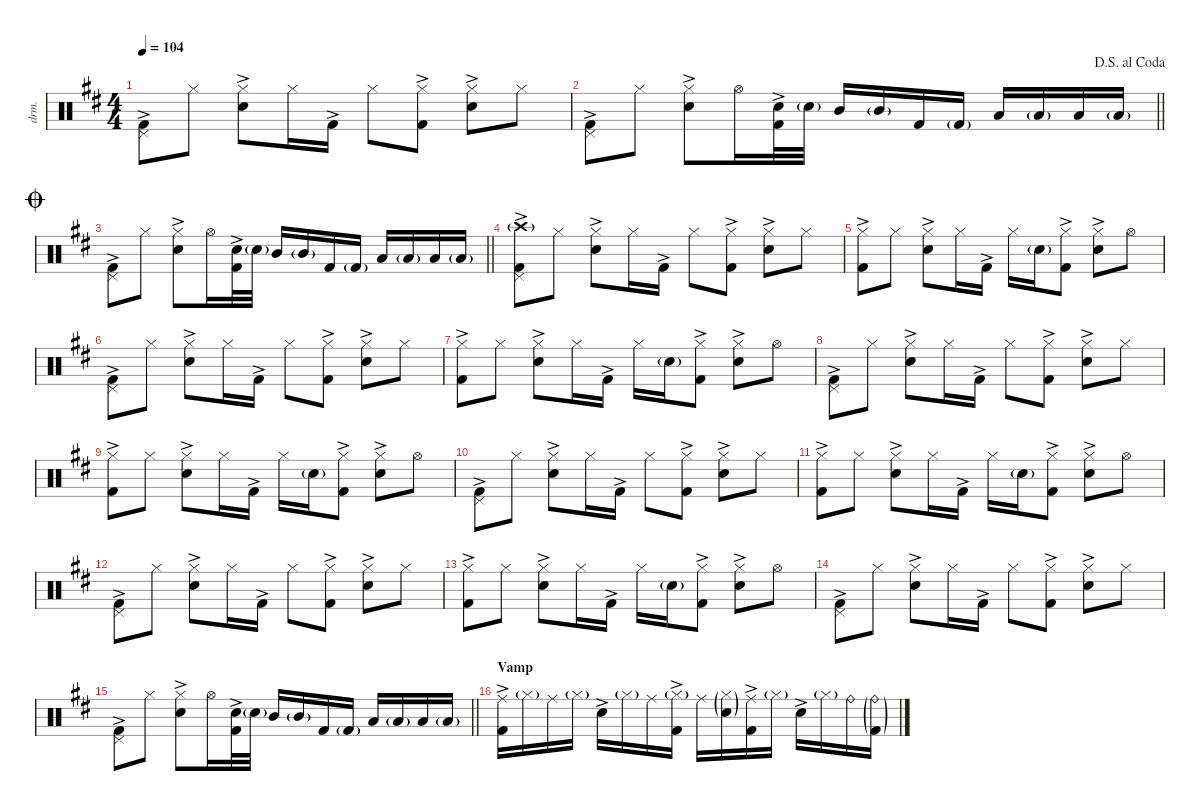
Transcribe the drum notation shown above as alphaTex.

\defaultSystemsLayout 4
\hideDynamics
\bracketExtendMode nobrackets
\otherSystemsTrackNameOrientation horizontal
\track ("Drums" "drm.") {instrument percussion}
\staff {score}
\articulation defaults
\ts (4 4)
\tempo 104
\clef neutral
\ks d
("Pedal Hi-Hat (hit)"{acc forcenatural} "Kick (hit) 2"{ac acc forcenatural}).8{dy f} "Hi-Hat (closed)"{acc forcenatural}.8 ("Hi-Hat (closed)"{acc forcenatural} "Snare (hit) 2"{ac acc forcenatural}).8 "Hi-Hat (closed)"{acc forcenatural}.16 "Kick (hit) 2"{ac acc forcenatural}.16 "Hi-Hat (closed)"{acc forcenatural}.8 ("Hi-Hat (closed)"{acc forcenatural} "Kick (hit) 2"{ac acc forcenatural}).8 ("Hi-Hat (closed)"{acc forcenatural} "Snare (hit) 2"{ac acc forcenatural}).8 "Hi-Hat (closed)"{acc forcenatural}.8 |
\jump dalsegnoalcoda
\barLineRight lightlight
("Pedal Hi-Hat (hit)"{acc forcenatural} "Kick (hit) 2"{ac acc forcenatural}).8 "Hi-Hat (closed)"{acc forcenatural}.8 ("Hi-Hat (closed)"{acc forcenatural} "Snare (hit) 2"{ac acc forcenatural}).8 "Hi-Hat (open)"{acc forcenatural}.16 ("Snare (hit) 2"{acc forcenatural} "Kick (hit) 2"{ac acc forcenatural}).32 "Snare (hit) 2"{g acc forcenatural}.32{dy mf} "Mid Tom (hit)"{acc forcenatural}.16{dy f} "Mid Tom (hit)"{g acc forcenatural}.16{dy mf} "Kick (hit) 2"{acc forcenatural}.16{dy f} "Kick (hit) 2"{g acc forcenatural}.16{dy mf} "Low Tom (hit)"{acc forcenatural}.16{dy f} "Low Tom (hit)"{g acc forcenatural}.16{dy mf} "Low Floor Tom (hit)"{acc forcenatural}.16{dy f} "Low Floor Tom (hit)"{g acc forcenatural}.16{dy mf} |
\jump coda
\barLineRight lightlight
("Pedal Hi-Hat (hit)"{acc forcenatural} "Kick (hit) 2"{ac acc forcenatural}).8{dy f} "Hi-Hat (closed)"{acc forcenatural}.8 ("Hi-Hat (closed)"{acc forcenatural} "Snare (hit) 2"{ac acc forcenatural}).8 "Hi-Hat (open)"{acc forcenatural}.16 ("Snare (hit) 2"{acc forcenatural} "Kick (hit) 2"{ac acc forcenatural}).32 "Snare (hit) 2"{g acc forcenatural}.32{dy mf} "Mid Tom (hit)"{acc forcenatural}.16{dy f} "Mid Tom (hit)"{g acc forcenatural}.16{dy mf} "Kick (hit) 2"{acc forcenatural}.16{dy f} "Kick (hit) 2"{g acc forcenatural}.16{dy mf} "Low Tom (hit)"{acc forcenatural}.16{dy f} "Low Tom (hit)"{g acc forcenatural}.16{dy mf} "Low Floor Tom (hit)"{acc forcenatural}.16{dy f} "Low Floor Tom (hit)"{g acc forcenatural}.16{dy mf} |
("Pedal Hi-Hat (hit)"{acc forcenatural} "Crash high (hit)"{g acc forcenatural} "Kick (hit) 2"{ac acc forcenatural}).8{dy f} "Hi-Hat (closed)"{acc forcenatural}.8 ("Hi-Hat (closed)"{acc forcenatural} "Snare (hit) 2"{ac acc forcenatural}).8 "Hi-Hat (closed)"{acc forcenatural}.16 "Kick (hit) 2"{ac acc forcenatural}.16 "Hi-Hat (closed)"{acc forcenatural}.8 ("Hi-Hat (closed)"{acc forcenatural} "Kick (hit) 2"{ac acc forcenatural}).8 ("Hi-Hat (closed)"{acc forcenatural} "Snare (hit) 2"{ac acc forcenatural}).8 "Hi-Hat (closed)"{acc forcenatural}.8 |
("Hi-Hat (closed)"{acc forcenatural} "Kick (hit) 2"{ac acc forcenatural}).8 "Hi-Hat (closed)"{acc forcenatural}.8 ("Hi-Hat (closed)"{acc forcenatural} "Snare (hit) 2"{ac acc forcenatural}).8 "Hi-Hat (closed)"{acc forcenatural}.16 "Kick (hit) 2"{ac acc forcenatural}.16 "Hi-Hat (closed)"{acc forcenatural}.16 "Snare (hit) 2"{g acc forcenatural}.16{dy p} ("Hi-Hat (closed)"{acc forcenatural} "Kick (hit) 2"{ac acc forcenatural}).8{dy f} ("Hi-Hat (closed)"{acc forcenatural} "Snare (hit) 2"{ac acc forcenatural}).8 "Hi-Hat (open)"{acc forcenatural}.8 |
("Pedal Hi-Hat (hit)"{acc forcenatural} "Kick (hit) 2"{ac acc forcenatural}).8 "Hi-Hat (closed)"{acc forcenatural}.8 ("Hi-Hat (closed)"{acc forcenatural} "Snare (hit) 2"{ac acc forcenatural}).8 "Hi-Hat (closed)"{acc forcenatural}.16 "Kick (hit) 2"{ac acc forcenatural}.16 "Hi-Hat (closed)"{acc forcenatural}.8 ("Hi-Hat (closed)"{acc forcenatural} "Kick (hit) 2"{ac acc forcenatural}).8 ("Hi-Hat (closed)"{acc forcenatural} "Snare (hit) 2"{ac acc forcenatural}).8 "Hi-Hat (closed)"{acc forcenatural}.8 |
("Hi-Hat (closed)"{acc forcenatural} "Kick (hit) 2"{ac acc forcenatural}).8 "Hi-Hat (closed)"{acc forcenatural}.8 ("Hi-Hat (closed)"{acc forcenatural} "Snare (hit) 2"{ac acc forcenatural}).8 "Hi-Hat (closed)"{acc forcenatural}.16 "Kick (hit) 2"{ac acc forcenatural}.16 "Hi-Hat (closed)"{acc forcenatural}.16 "Snare (hit) 2"{g acc forcenatural}.16{dy p} ("Hi-Hat (closed)"{acc forcenatural} "Kick (hit) 2"{ac acc forcenatural}).8{dy f} ("Hi-Hat (closed)"{acc forcenatural} "Snare (hit) 2"{ac acc forcenatural}).8 "Hi-Hat (open)"{acc forcenatural}.8 |
("Pedal Hi-Hat (hit)"{acc forcenatural} "Kick (hit) 2"{ac acc forcenatural}).8 "Hi-Hat (closed)"{acc forcenatural}.8 ("Hi-Hat (closed)"{acc forcenatural} "Snare (hit) 2"{ac acc forcenatural}).8 "Hi-Hat (closed)"{acc forcenatural}.16 "Kick (hit) 2"{ac acc forcenatural}.16 "Hi-Hat (closed)"{acc forcenatural}.8 ("Hi-Hat (closed)"{acc forcenatural} "Kick (hit) 2"{ac acc forcenatural}).8 ("Hi-Hat (closed)"{acc forcenatural} "Snare (hit) 2"{ac acc forcenatural}).8 "Hi-Hat (closed)"{acc forcenatural}.8 |
("Hi-Hat (closed)"{acc forcenatural} "Kick (hit) 2"{ac acc forcenatural}).8 "Hi-Hat (closed)"{acc forcenatural}.8 ("Hi-Hat (closed)"{acc forcenatural} "Snare (hit) 2"{ac acc forcenatural}).8 "Hi-Hat (closed)"{acc forcenatural}.16 "Kick (hit) 2"{ac acc forcenatural}.16 "Hi-Hat (closed)"{acc forcenatural}.16 "Snare (hit) 2"{g acc forcenatural}.16{dy p} ("Hi-Hat (closed)"{acc forcenatural} "Kick (hit) 2"{ac acc forcenatural}).8{dy f} ("Hi-Hat (closed)"{acc forcenatural} "Snare (hit) 2"{ac acc forcenatural}).8 "Hi-Hat (open)"{acc forcenatural}.8 |
("Pedal Hi-Hat (hit)"{acc forcenatural} "Kick (hit) 2"{ac acc forcenatural}).8 "Hi-Hat (closed)"{acc forcenatural}.8 ("Hi-Hat (closed)"{acc forcenatural} "Snare (hit) 2"{ac acc forcenatural}).8 "Hi-Hat (closed)"{acc forcenatural}.16 "Kick (hit) 2"{ac acc forcenatural}.16 "Hi-Hat (closed)"{acc forcenatural}.8 ("Hi-Hat (closed)"{acc forcenatural} "Kick (hit) 2"{ac acc forcenatural}).8 ("Hi-Hat (closed)"{acc forcenatural} "Snare (hit) 2"{ac acc forcenatural}).8 "Hi-Hat (closed)"{acc forcenatural}.8 |
("Hi-Hat (closed)"{acc forcenatural} "Kick (hit) 2"{ac acc forcenatural}).8 "Hi-Hat (closed)"{acc forcenatural}.8 ("Hi-Hat (closed)"{acc forcenatural} "Snare (hit) 2"{ac acc forcenatural}).8 "Hi-Hat (closed)"{acc forcenatural}.16 "Kick (hit) 2"{ac acc forcenatural}.16 "Hi-Hat (closed)"{acc forcenatural}.16 "Snare (hit) 2"{g acc forcenatural}.16{dy p} ("Hi-Hat (closed)"{acc forcenatural} "Kick (hit) 2"{ac acc forcenatural}).8{dy f} ("Hi-Hat (closed)"{acc forcenatural} "Snare (hit) 2"{ac acc forcenatural}).8 "Hi-Hat (open)"{acc forcenatural}.8 |
("Pedal Hi-Hat (hit)"{acc forcenatural} "Kick (hit) 2"{ac acc forcenatural}).8 "Hi-Hat (closed)"{acc forcenatural}.8 ("Hi-Hat (closed)"{acc forcenatural} "Snare (hit) 2"{ac acc forcenatural}).8 "Hi-Hat (closed)"{acc forcenatural}.16 "Kick (hit) 2"{ac acc forcenatural}.16 "Hi-Hat (closed)"{acc forcenatural}.8 ("Hi-Hat (closed)"{acc forcenatural} "Kick (hit) 2"{ac acc forcenatural}).8 ("Hi-Hat (closed)"{acc forcenatural} "Snare (hit) 2"{ac acc forcenatural}).8 "Hi-Hat (closed)"{acc forcenatural}.8 |
("Hi-Hat (closed)"{acc forcenatural} "Kick (hit) 2"{ac acc forcenatural}).8 "Hi-Hat (closed)"{acc forcenatural}.8 ("Hi-Hat (closed)"{acc forcenatural} "Snare (hit) 2"{ac acc forcenatural}).8 "Hi-Hat (closed)"{acc forcenatural}.16 "Kick (hit) 2"{ac acc forcenatural}.16 "Hi-Hat (closed)"{acc forcenatural}.16 "Snare (hit) 2"{g acc forcenatural}.16{dy p} ("Hi-Hat (closed)"{acc forcenatural} "Kick (hit) 2"{ac acc forcenatural}).8{dy f} ("Hi-Hat (closed)"{acc forcenatural} "Snare (hit) 2"{ac acc forcenatural}).8 "Hi-Hat (open)"{acc forcenatural}.8 |
("Pedal Hi-Hat (hit)"{acc forcenatural} "Kick (hit) 2"{ac acc forcenatural}).8 "Hi-Hat (closed)"{acc forcenatural}.8 ("Hi-Hat (closed)"{acc forcenatural} "Snare (hit) 2"{ac acc forcenatural}).8 "Hi-Hat (closed)"{acc forcenatural}.16 "Kick (hit) 2"{ac acc forcenatural}.16 "Hi-Hat (closed)"{acc forcenatural}.8 ("Hi-Hat (closed)"{acc forcenatural} "Kick (hit) 2"{ac acc forcenatural}).8 ("Hi-Hat (closed)"{acc forcenatural} "Snare (hit) 2"{ac acc forcenatural}).8 "Hi-Hat (closed)"{acc forcenatural}.8 |
\barLineRight lightlight
("Pedal Hi-Hat (hit)"{acc forcenatural} "Kick (hit) 2"{ac acc forcenatural}).8 "Hi-Hat (closed)"{acc forcenatural}.8 ("Hi-Hat (closed)"{acc forcenatural} "Snare (hit) 2"{ac acc forcenatural}).8 "Hi-Hat (open)"{acc forcenatural}.16 ("Snare (hit) 2"{acc forcenatural} "Kick (hit) 2"{ac acc forcenatural}).32 "Snare (hit) 2"{g acc forcenatural}.32{dy mf} "Mid Tom (hit)"{acc forcenatural}.16{dy f} "Mid Tom (hit)"{g acc forcenatural}.16{dy mf} "Kick (hit) 2"{acc forcenatural}.16{dy f} "Kick (hit) 2"{g acc forcenatural}.16{dy mf} "Low Tom (hit)"{acc forcenatural}.16{dy f} "Low Tom (hit)"{g acc forcenatural}.16{dy mf} "Low Floor Tom (hit)"{acc forcenatural}.16{dy f} "Low Floor Tom (hit)"{g acc forcenatural}.16{dy mf} |
\section ("" "Vamp")
("Ride (middle)"{acc forcenatural} "Kick (hit) 2"{ac acc forcenatural}).16{dy f} "Hi-Hat (closed)"{g acc forcenatural}.16{dy mf} "Ride (middle)"{acc forcenatural}.16{dy f} "Hi-Hat (closed)"{g acc forcenatural}.16{dy mf} "Snare (hit) 2"{ac acc forcenatural}.16{dy f} "Hi-Hat (closed)"{g acc forcenatural}.16{dy mf} "Ride (middle)"{acc forcenatural}.16{dy f} ("Hi-Hat (closed)"{g acc forcenatural} "Kick (hit) 2"{ac acc forcenatural}).16{dy mf} "Ride (middle)"{acc forcenatural}.16{dy f} ("Hi-Hat (closed)"{g acc forcenatural} "Snare (hit) 2"{g acc forcenatural}).16{dy mf} ("Ride (middle)"{acc forcenatural} "Kick (hit) 2"{ac acc forcenatural}).16{dy f} "Hi-Hat (closed)"{g acc forcenatural}.16{dy mf} "Snare (hit) 2"{ac acc forcenatural}.16{dy f} "Hi-Hat (closed)"{g acc forcenatural}.16{dy mf} "Ride (bell)"{acc forcenatural}.16{dy f} ("Ride (bell)"{g acc forcenatural} "Kick (hit) 2"{g acc forcenatural}).16{dy mf}
